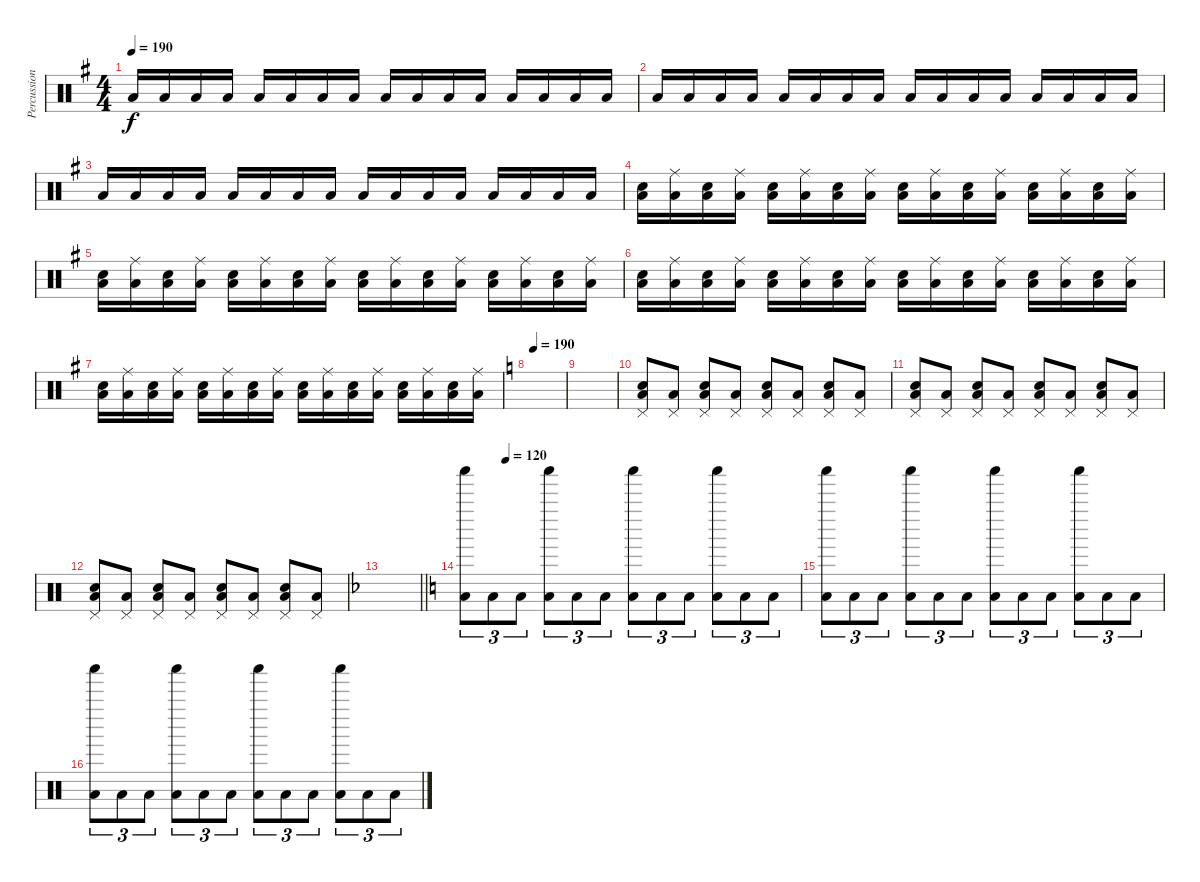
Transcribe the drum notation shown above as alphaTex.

\track ("Percussioni" "Percussion") {instrument percussion}
\staff {score}
\articulation defaults
\ts (4 4)
\tempo 190
\clef neutral
\ks g "Low Floor Tom (hit)".16{dy f} "Low Floor Tom (hit)".16 "Low Floor Tom (hit)".16 "Low Floor Tom (hit)".16 "Low Floor Tom (hit)".16 "Low Floor Tom (hit)".16 "Low Floor Tom (hit)".16 "Low Floor Tom (hit)".16 "Low Floor Tom (hit)".16 "Low Floor Tom (hit)".16 "Low Floor Tom (hit)".16 "Low Floor Tom (hit)".16 "Low Floor Tom (hit)".16 "Low Floor Tom (hit)".16 "Low Floor Tom (hit)".16 "Low Floor Tom (hit)".16
|
"Low Floor Tom (hit)".16 "Low Floor Tom (hit)".16 "Low Floor Tom (hit)".16 "Low Floor Tom (hit)".16 "Low Floor Tom (hit)".16 "Low Floor Tom (hit)".16 "Low Floor Tom (hit)".16 "Low Floor Tom (hit)".16 "Low Floor Tom (hit)".16 "Low Floor Tom (hit)".16 "Low Floor Tom (hit)".16 "Low Floor Tom (hit)".16 "Low Floor Tom (hit)".16 "Low Floor Tom (hit)".16 "Low Floor Tom (hit)".16 "Low Floor Tom (hit)".16 |
"Low Floor Tom (hit)".16 "Low Floor Tom (hit)".16 "Low Floor Tom (hit)".16 "Low Floor Tom (hit)".16 "Low Floor Tom (hit)".16 "Low Floor Tom (hit)".16 "Low Floor Tom (hit)".16 "Low Floor Tom (hit)".16 "Low Floor Tom (hit)".16 "Low Floor Tom (hit)".16 "Low Floor Tom (hit)".16 "Low Floor Tom (hit)".16 "Low Floor Tom (hit)".16 "Low Floor Tom (hit)".16 "Low Floor Tom (hit)".16 "Low Floor Tom (hit)".16 |
("Low Floor Tom (hit)" "Electric Snare (hit)").16 ("Low Floor Tom (hit)" "Ride (middle)").16 ("Low Floor Tom (hit)" "Electric Snare (hit)").16 ("Low Floor Tom (hit)" "Ride (middle)").16 ("Low Floor Tom (hit)" "Electric Snare (hit)").16 ("Low Floor Tom (hit)" "Ride (middle)").16 ("Low Floor Tom (hit)" "Electric Snare (hit)").16 ("Low Floor Tom (hit)" "Ride (middle)").16 ("Low Floor Tom (hit)" "Electric Snare (hit)").16 ("Low Floor Tom (hit)" "Ride (middle)").16 ("Low Floor Tom (hit)" "Electric Snare (hit)").16 ("Low Floor Tom (hit)" "Ride (middle)").16 ("Low Floor Tom (hit)" "Electric Snare (hit)").16 ("Low Floor Tom (hit)" "Ride (middle)").16 ("Low Floor Tom (hit)" "Electric Snare (hit)").16 ("Low Floor Tom (hit)" "Ride (middle)").16 |
("Low Floor Tom (hit)" "Electric Snare (hit)").16 ("Low Floor Tom (hit)" "Ride (middle)").16 ("Low Floor Tom (hit)" "Electric Snare (hit)").16 ("Low Floor Tom (hit)" "Ride (middle)").16 ("Low Floor Tom (hit)" "Electric Snare (hit)").16 ("Low Floor Tom (hit)" "Ride (middle)").16 ("Low Floor Tom (hit)" "Electric Snare (hit)").16 ("Low Floor Tom (hit)" "Ride (middle)").16 ("Low Floor Tom (hit)" "Electric Snare (hit)").16 ("Low Floor Tom (hit)" "Ride (middle)").16 ("Low Floor Tom (hit)" "Electric Snare (hit)").16 ("Low Floor Tom (hit)" "Ride (middle)").16 ("Low Floor Tom (hit)" "Electric Snare (hit)").16 ("Low Floor Tom (hit)" "Ride (middle)").16 ("Low Floor Tom (hit)" "Electric Snare (hit)").16 ("Low Floor Tom (hit)" "Ride (middle)").16 |
("Low Floor Tom (hit)" "Electric Snare (hit)").16 ("Low Floor Tom (hit)" "Ride (middle)").16 ("Low Floor Tom (hit)" "Electric Snare (hit)").16 ("Low Floor Tom (hit)" "Ride (middle)").16 ("Low Floor Tom (hit)" "Electric Snare (hit)").16 ("Low Floor Tom (hit)" "Ride (middle)").16 ("Low Floor Tom (hit)" "Electric Snare (hit)").16 ("Low Floor Tom (hit)" "Ride (middle)").16 ("Low Floor Tom (hit)" "Electric Snare (hit)").16 ("Low Floor Tom (hit)" "Ride (middle)").16 ("Low Floor Tom (hit)" "Electric Snare (hit)").16 ("Low Floor Tom (hit)" "Ride (middle)").16 ("Low Floor Tom (hit)" "Electric Snare (hit)").16 ("Low Floor Tom (hit)" "Ride (middle)").16 ("Low Floor Tom (hit)" "Electric Snare (hit)").16 ("Low Floor Tom (hit)" "Ride (middle)").16 |
("Low Floor Tom (hit)" "Electric Snare (hit)").16 ("Low Floor Tom (hit)" "Ride (middle)").16 ("Low Floor Tom (hit)" "Electric Snare (hit)").16 ("Low Floor Tom (hit)" "Ride (middle)").16 ("Low Floor Tom (hit)" "Electric Snare (hit)").16 ("Low Floor Tom (hit)" "Ride (middle)").16 ("Low Floor Tom (hit)" "Electric Snare (hit)").16 ("Low Floor Tom (hit)" "Ride (middle)").16 ("Low Floor Tom (hit)" "Electric Snare (hit)").16 ("Low Floor Tom (hit)" "Ride (middle)").16 ("Low Floor Tom (hit)" "Electric Snare (hit)").16 ("Low Floor Tom (hit)" "Ride (middle)").16 ("Low Floor Tom (hit)" "Electric Snare (hit)").16 ("Low Floor Tom (hit)" "Ride (middle)").16 ("Low Floor Tom (hit)" "Electric Snare (hit)").16 ("Low Floor Tom (hit)" "Ride (middle)").16 |
\tempo (190 0.125)
\ks c
|
|
("Low Floor Tom (hit)" "Electric Snare (hit)" "Pedal Hi-Hat (hit)").8 ("Low Floor Tom (hit)" "Pedal Hi-Hat (hit)").8 ("Low Floor Tom (hit)" "Electric Snare (hit)" "Pedal Hi-Hat (hit)").8 ("Low Floor Tom (hit)" "Pedal Hi-Hat (hit)").8 ("Low Floor Tom (hit)" "Electric Snare (hit)" "Pedal Hi-Hat (hit)").8 ("Low Floor Tom (hit)" "Pedal Hi-Hat (hit)").8 ("Low Floor Tom (hit)" "Electric Snare (hit)" "Pedal Hi-Hat (hit)").8 ("Low Floor Tom (hit)" "Pedal Hi-Hat (hit)").8 |
("Low Floor Tom (hit)" "Electric Snare (hit)" "Pedal Hi-Hat (hit)").8 ("Low Floor Tom (hit)" "Pedal Hi-Hat (hit)").8 ("Low Floor Tom (hit)" "Electric Snare (hit)" "Pedal Hi-Hat (hit)").8 ("Low Floor Tom (hit)" "Pedal Hi-Hat (hit)").8 ("Low Floor Tom (hit)" "Electric Snare (hit)" "Pedal Hi-Hat (hit)").8 ("Low Floor Tom (hit)" "Pedal Hi-Hat (hit)").8 ("Low Floor Tom (hit)" "Electric Snare (hit)" "Pedal Hi-Hat (hit)").8 ("Low Floor Tom (hit)" "Pedal Hi-Hat (hit)").8 |
("Low Floor Tom (hit)" "Electric Snare (hit)" "Pedal Hi-Hat (hit)").8 ("Low Floor Tom (hit)" "Pedal Hi-Hat (hit)").8 ("Low Floor Tom (hit)" "Electric Snare (hit)" "Pedal Hi-Hat (hit)").8 ("Low Floor Tom (hit)" "Pedal Hi-Hat (hit)").8 ("Low Floor Tom (hit)" "Electric Snare (hit)" "Pedal Hi-Hat (hit)").8 ("Low Floor Tom (hit)" "Pedal Hi-Hat (hit)").8 ("Low Floor Tom (hit)" "Electric Snare (hit)" "Pedal Hi-Hat (hit)").8 ("Low Floor Tom (hit)" "Pedal Hi-Hat (hit)").8 |
\barLineRight lightlight
\ks f
|
\tempo (120 0.125)
\ks c
("Low Floor Tom (hit)" "Shaker (hit)").8{tu (3 2)} "Low Floor Tom (hit)".8{tu (3 2)} "Low Floor Tom (hit)".8{tu (3 2)} ("Low Floor Tom (hit)" "Shaker (hit)").8{tu (3 2)} "Low Floor Tom (hit)".8{tu (3 2)} "Low Floor Tom (hit)".8{tu (3 2)} ("Low Floor Tom (hit)" "Shaker (hit)").8{tu (3 2)} "Low Floor Tom (hit)".8{tu (3 2)} "Low Floor Tom (hit)".8{tu (3 2)} ("Low Floor Tom (hit)" "Shaker (hit)").8{tu (3 2)} "Low Floor Tom (hit)".8{tu (3 2)} "Low Floor Tom (hit)".8{tu (3 2)} |
("Low Floor Tom (hit)" "Shaker (hit)").8{tu (3 2)} "Low Floor Tom (hit)".8{tu (3 2)} "Low Floor Tom (hit)".8{tu (3 2)} ("Low Floor Tom (hit)" "Shaker (hit)").8{tu (3 2)} "Low Floor Tom (hit)".8{tu (3 2)} "Low Floor Tom (hit)".8{tu (3 2)} ("Low Floor Tom (hit)" "Shaker (hit)").8{tu (3 2)} "Low Floor Tom (hit)".8{tu (3 2)} "Low Floor Tom (hit)".8{tu (3 2)} ("Low Floor Tom (hit)" "Shaker (hit)").8{tu (3 2)} "Low Floor Tom (hit)".8{tu (3 2)} "Low Floor Tom (hit)".8{tu (3 2)} |
("Low Floor Tom (hit)" "Shaker (hit)").8{tu (3 2)} "Low Floor Tom (hit)".8{tu (3 2)} "Low Floor Tom (hit)".8{tu (3 2)} ("Low Floor Tom (hit)" "Shaker (hit)").8{tu (3 2)} "Low Floor Tom (hit)".8{tu (3 2)} "Low Floor Tom (hit)".8{tu (3 2)} ("Low Floor Tom (hit)" "Shaker (hit)").8{tu (3 2)} "Low Floor Tom (hit)".8{tu (3 2)} "Low Floor Tom (hit)".8{tu (3 2)} ("Low Floor Tom (hit)" "Shaker (hit)").8{tu (3 2)} "Low Floor Tom (hit)".8{tu (3 2)} "Low Floor Tom (hit)".8{tu (3 2)}
